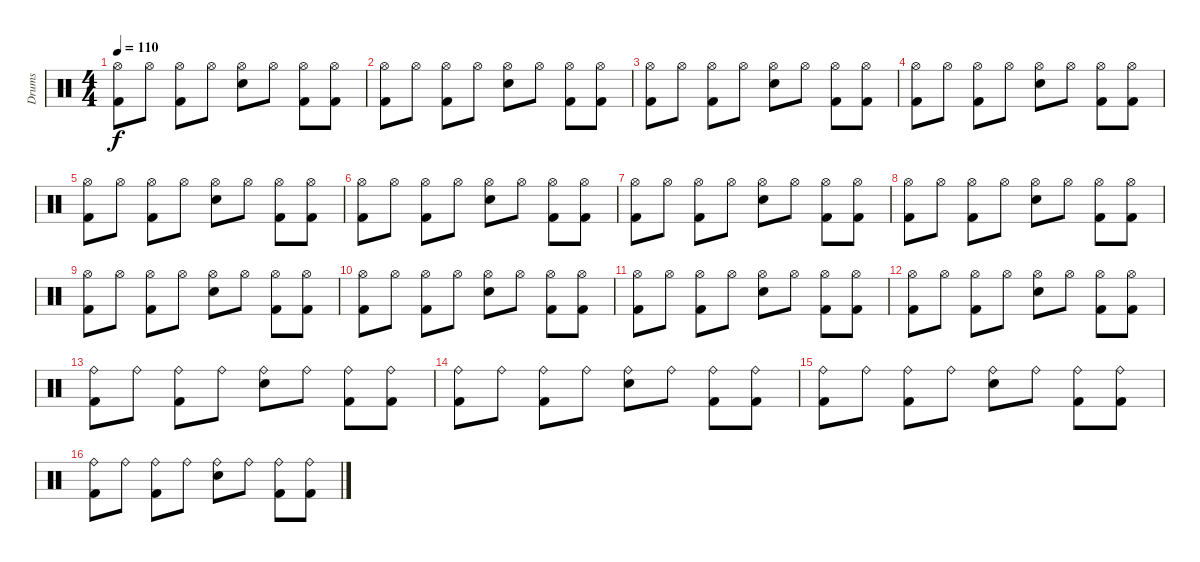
\track ("Drums" "Drums") {instrument percussion}
\staff {score}
\articulation defaults
\ts (4 4)
\tempo 110
\clef neutral
\ks c
("Hi-Hat (open)" "Kick (hit) 2").8{dy f} "Hi-Hat (open)".8 ("Hi-Hat (open)" "Kick (hit) 2").8 "Hi-Hat (open)".8 ("Hi-Hat (open)" "Electric Snare (hit)").8 "Hi-Hat (open)".8 ("Hi-Hat (open)" "Kick (hit) 2").8 ("Hi-Hat (open)" "Kick (hit) 2").8 |
("Hi-Hat (open)" "Kick (hit) 2").8 "Hi-Hat (open)".8 ("Hi-Hat (open)" "Kick (hit) 2").8 "Hi-Hat (open)".8 ("Hi-Hat (open)" "Electric Snare (hit)").8 "Hi-Hat (open)".8 ("Hi-Hat (open)" "Kick (hit) 2").8 ("Hi-Hat (open)" "Kick (hit) 2").8 |
("Hi-Hat (open)" "Kick (hit) 2").8 "Hi-Hat (open)".8 ("Hi-Hat (open)" "Kick (hit) 2").8 "Hi-Hat (open)".8 ("Hi-Hat (open)" "Electric Snare (hit)").8 "Hi-Hat (open)".8 ("Hi-Hat (open)" "Kick (hit) 2").8 ("Hi-Hat (open)" "Kick (hit) 2").8 |
("Hi-Hat (open)" "Kick (hit) 2").8 "Hi-Hat (open)".8 ("Hi-Hat (open)" "Kick (hit) 2").8 "Hi-Hat (open)".8 ("Hi-Hat (open)" "Electric Snare (hit)").8 "Hi-Hat (open)".8 ("Hi-Hat (open)" "Kick (hit) 2").8 ("Hi-Hat (open)" "Kick (hit) 2").8 |
("Hi-Hat (open)" "Kick (hit) 2").8 "Hi-Hat (open)".8 ("Hi-Hat (open)" "Kick (hit) 2").8 "Hi-Hat (open)".8 ("Hi-Hat (open)" "Electric Snare (hit)").8 "Hi-Hat (open)".8 ("Hi-Hat (open)" "Kick (hit) 2").8 ("Hi-Hat (open)" "Kick (hit) 2").8 |
("Hi-Hat (open)" "Kick (hit) 2").8 "Hi-Hat (open)".8 ("Hi-Hat (open)" "Kick (hit) 2").8 "Hi-Hat (open)".8 ("Hi-Hat (open)" "Electric Snare (hit)").8 "Hi-Hat (open)".8 ("Hi-Hat (open)" "Kick (hit) 2").8 ("Hi-Hat (open)" "Kick (hit) 2").8 |
("Hi-Hat (open)" "Kick (hit) 2").8 "Hi-Hat (open)".8 ("Hi-Hat (open)" "Kick (hit) 2").8 "Hi-Hat (open)".8 ("Hi-Hat (open)" "Electric Snare (hit)").8 "Hi-Hat (open)".8 ("Hi-Hat (open)" "Kick (hit) 2").8 ("Hi-Hat (open)" "Kick (hit) 2").8 |
("Hi-Hat (open)" "Kick (hit) 2").8 "Hi-Hat (open)".8 ("Hi-Hat (open)" "Kick (hit) 2").8 "Hi-Hat (open)".8 ("Hi-Hat (open)" "Electric Snare (hit)").8 "Hi-Hat (open)".8 ("Hi-Hat (open)" "Kick (hit) 2").8 ("Hi-Hat (open)" "Kick (hit) 2").8 |
("Hi-Hat (open)" "Kick (hit) 2").8 "Hi-Hat (open)".8 ("Hi-Hat (open)" "Kick (hit) 2").8 "Hi-Hat (open)".8 ("Hi-Hat (open)" "Electric Snare (hit)").8 "Hi-Hat (open)".8 ("Hi-Hat (open)" "Kick (hit) 2").8 ("Hi-Hat (open)" "Kick (hit) 2").8 |
("Hi-Hat (open)" "Kick (hit) 2").8 "Hi-Hat (open)".8 ("Hi-Hat (open)" "Kick (hit) 2").8 "Hi-Hat (open)".8 ("Hi-Hat (open)" "Electric Snare (hit)").8 "Hi-Hat (open)".8 ("Hi-Hat (open)" "Kick (hit) 2").8 ("Hi-Hat (open)" "Kick (hit) 2").8 |
("Hi-Hat (open)" "Kick (hit) 2").8 "Hi-Hat (open)".8 ("Hi-Hat (open)" "Kick (hit) 2").8 "Hi-Hat (open)".8 ("Hi-Hat (open)" "Electric Snare (hit)").8 "Hi-Hat (open)".8 ("Hi-Hat (open)" "Kick (hit) 2").8 ("Hi-Hat (open)" "Kick (hit) 2").8 |
("Hi-Hat (open)" "Kick (hit) 2").8 "Hi-Hat (open)".8 ("Hi-Hat (open)" "Kick (hit) 2").8 "Hi-Hat (open)".8 ("Hi-Hat (open)" "Electric Snare (hit)").8 "Hi-Hat (open)".8 ("Hi-Hat (open)" "Kick (hit) 2").8 ("Hi-Hat (open)" "Kick (hit) 2").8 |
("Ride (bell)" "Kick (hit) 2").8 "Ride (bell)".8 ("Ride (bell)" "Kick (hit) 2").8 "Ride (bell)".8 ("Ride (bell)" "Electric Snare (hit)").8 "Ride (bell)".8 ("Ride (bell)" "Kick (hit) 2").8 ("Ride (bell)" "Kick (hit) 2").8 |
("Ride (bell)" "Kick (hit) 2").8 "Ride (bell)".8 ("Ride (bell)" "Kick (hit) 2").8 "Ride (bell)".8 ("Ride (bell)" "Electric Snare (hit)").8 "Ride (bell)".8 ("Ride (bell)" "Kick (hit) 2").8 ("Ride (bell)" "Kick (hit) 2").8 |
("Ride (bell)" "Kick (hit) 2").8 "Ride (bell)".8 ("Ride (bell)" "Kick (hit) 2").8 "Ride (bell)".8 ("Ride (bell)" "Electric Snare (hit)").8 "Ride (bell)".8 ("Ride (bell)" "Kick (hit) 2").8 ("Ride (bell)" "Kick (hit) 2").8 |
("Ride (bell)" "Kick (hit) 2").8 "Ride (bell)".8 ("Ride (bell)" "Kick (hit) 2").8 "Ride (bell)".8 ("Ride (bell)" "Electric Snare (hit)").8 "Ride (bell)".8 ("Ride (bell)" "Kick (hit) 2").8 ("Ride (bell)" "Kick (hit) 2").8
